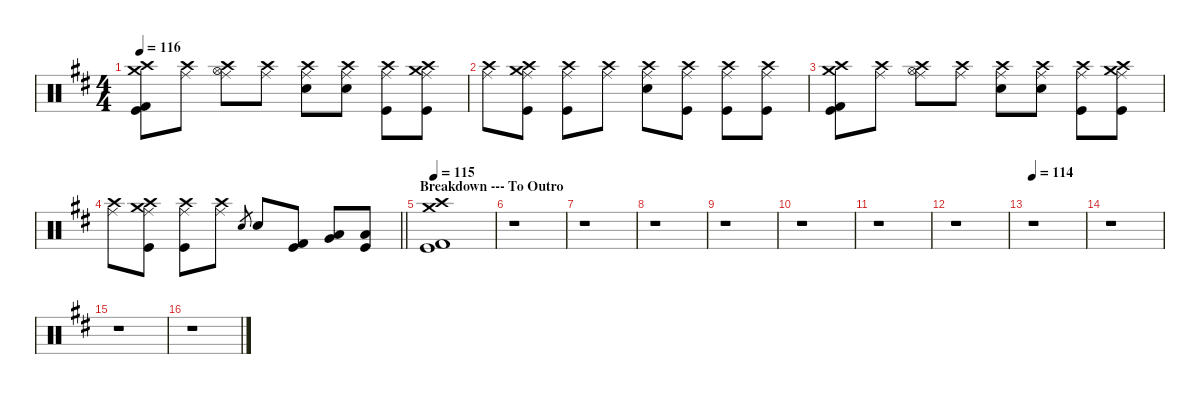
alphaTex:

\defaultSystemsLayout 4
\hideDynamics
\bracketExtendMode nobrackets
\singleTrackTrackNamePolicy hidden
\multiTrackTrackNamePolicy hidden
\firstSystemTrackNameMode fullname
\firstSystemTrackNameOrientation horizontal
\otherSystemsTrackNameOrientation horizontal
\track ("Aaron Harris" "drm.") {instrument percussion}
\staff {score}
\articulation defaults
\ts (4 4)
\tempo 116
\clef neutral
\ks bminor
("Crash medium (hit)"{acc forcenatural} "Crash high (hit)"{acc forcenatural} "Kick (hit) 2"{acc forcenatural} "Kick (hit)"{acc forcenatural}).8{dy f beam Down} ("Crash high (hit)"{acc forcenatural} "Ride (middle)"{acc forcenatural}).8{dy mp beam Down} ("Crash high (hit)"{acc forcenatural} "Hi-Hat (open)"{acc forcenatural} "Ride (middle)"{acc forcenatural}).8{beam Down} ("Crash high (hit)"{acc forcenatural} "Ride (middle)"{acc forcenatural}).8{dy p beam Down} ("Crash high (hit)"{acc forcenatural} "Ride (middle)"{acc forcenatural} "Snare (hit) 2"{acc forcenatural}).8{dy mf beam Down} ("Crash high (hit)"{acc forcenatural} "Ride (middle)"{acc forcenatural} "Snare (hit) 2"{acc forcenatural}).8{dy p beam Down} ("Crash high (hit)"{acc forcenatural} "Ride (middle)"{acc forcenatural} "Kick (hit)"{acc forcenatural}).8{beam Down} ("Crash medium (hit)"{acc forcenatural} "Crash high (hit)"{acc forcenatural} "Ride (middle)"{acc forcenatural} "Kick (hit)"{acc forcenatural}).8{dy f beam Down} |
("Crash high (hit)"{acc forcenatural} "Ride (middle)"{acc forcenatural}).8{dy p beam Down} ("Crash medium (hit)"{acc forcenatural} "Crash high (hit)"{acc forcenatural} "Ride (middle)"{acc forcenatural} "Kick (hit)"{acc forcenatural}).8{dy f beam Down} ("Crash high (hit)"{acc forcenatural} "Ride (middle)"{acc forcenatural} "Kick (hit)"{acc forcenatural}).8{dy mp beam Down} ("Crash high (hit)"{acc forcenatural} "Ride (middle)"{acc forcenatural}).8{dy p beam Down} ("Crash high (hit)"{acc forcenatural} "Ride (middle)"{acc forcenatural} "Snare (hit) 2"{acc forcenatural}).8{beam Down} ("Crash high (hit)"{acc forcenatural} "Ride (middle)"{acc forcenatural} "Kick (hit)"{acc forcenatural}).8{beam Down} ("Crash high (hit)"{acc forcenatural} "Ride (middle)"{acc forcenatural} "Kick (hit)"{acc forcenatural}).8{beam Down} ("Crash high (hit)"{acc forcenatural} "Ride (middle)"{acc forcenatural} "Kick (hit)"{acc forcenatural}).8{beam Down} |
("Crash medium (hit)"{acc forcenatural} "Crash high (hit)"{acc forcenatural} "Kick (hit) 2"{acc forcenatural} "Kick (hit)"{acc forcenatural}).8{dy f beam Down} ("Crash high (hit)"{acc forcenatural} "Ride (middle)"{acc forcenatural}).8{dy mp beam Down} ("Crash high (hit)"{acc forcenatural} "Hi-Hat (open)"{acc forcenatural} "Ride (middle)"{acc forcenatural}).8{beam Down} ("Crash high (hit)"{acc forcenatural} "Ride (middle)"{acc forcenatural}).8{dy p beam Down} ("Crash high (hit)"{acc forcenatural} "Ride (middle)"{acc forcenatural} "Snare (hit) 2"{acc forcenatural}).8{dy mf beam Down} ("Crash high (hit)"{acc forcenatural} "Ride (middle)"{acc forcenatural} "Snare (hit) 2"{acc forcenatural}).8{dy p beam Down} ("Crash high (hit)"{acc forcenatural} "Ride (middle)"{acc forcenatural} "Kick (hit)"{acc forcenatural}).8{beam Down} ("Crash medium (hit)"{acc forcenatural} "Crash high (hit)"{acc forcenatural} "Ride (middle)"{acc forcenatural} "Kick (hit)"{acc forcenatural}).8{dy f beam Down} |
\barLineRight lightlight
("Crash high (hit)"{acc forcenatural} "Ride (middle)"{acc forcenatural}).8{dy p beam Down} ("Crash medium (hit)"{acc forcenatural} "Crash high (hit)"{acc forcenatural} "Ride (middle)"{acc forcenatural} "Kick (hit)"{acc forcenatural}).8{dy f beam Down} ("Crash high (hit)"{acc forcenatural} "Ride (middle)"{acc forcenatural} "Kick (hit)"{acc forcenatural}).8{dy mp beam Down} ("Crash high (hit)"{acc forcenatural} "Ride (middle)"{acc forcenatural}).8{dy p beam Down} "Electric Snare (hit)"{acc forcenatural}.8{gr dy f beam Up} "Snare (hit) 2"{acc forcenatural}.8{dy ff beam Up} ("Kick (hit) 2"{acc forcenatural} "Kick (hit)"{acc forcenatural}).8{dy f beam Up} ("Low Tom (hit)"{acc forcenatural} "Very Low Tom (hit)"{acc forcenatural}).8{dy ff beam Up} ("Low Floor Tom (hit)"{acc forcenatural} "Kick (hit)"{acc forcenatural}).8{beam Up} |
\section ("" "Breakdown --- To Outro")
\tempo 115
("Crash medium (hit)"{acc forcenatural} "Crash high (hit)"{acc forcenatural} "Kick (hit) 2"{acc forcenatural} "Kick (hit)"{acc forcenatural}).1{dy f beam Down} |
r.1{beam Down} |
r.1{beam Down} |
r.1{beam Down} |
r.1{beam Down} |
r.1{beam Down} |
r.1{beam Down} |
r.1{beam Down} |
\tempo 114
r.1{beam Down} |
r.1{beam Down} |
r.1{beam Down} |
r.1{beam Down}
